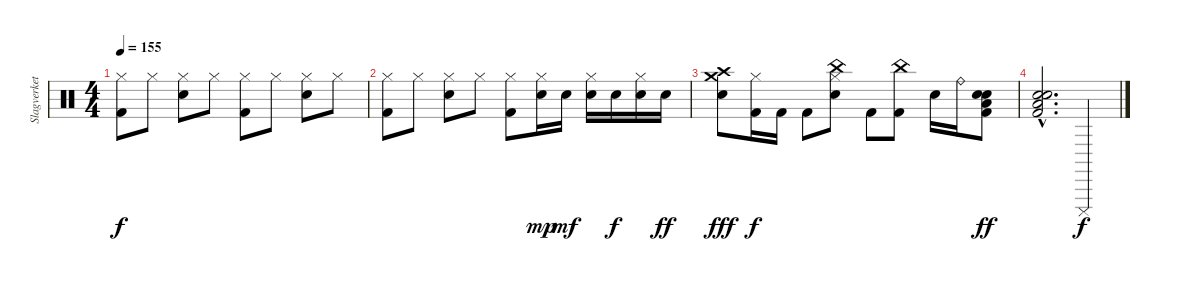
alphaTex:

\track ("Slagverket!" "Slagverket") {instrument percussion}
\staff {score}
\articulation defaults
\ts (4 4)
\tempo 155
\clef neutral
\ks c
("Hi-Hat (closed)" "Kick (hit) 2").8{dy f} "Hi-Hat (closed)".8 ("Hi-Hat (closed)" "Electric Snare (hit)").8 "Hi-Hat (closed)".8 ("Hi-Hat (closed)" "Kick (hit) 2").8 "Hi-Hat (closed)".8 ("Hi-Hat (closed)" "Electric Snare (hit)").8 "Hi-Hat (closed)".8 |
("Hi-Hat (closed)" "Kick (hit) 2").8 "Hi-Hat (closed)".8 ("Hi-Hat (closed)" "Electric Snare (hit)").8 "Hi-Hat (closed)".8 ("Hi-Hat (closed)" "Kick (hit) 2").8 ("Hi-Hat (closed)" "Electric Snare (hit)").16{dy mp} "Electric Snare (hit)".16{dy mf} ("Hi-Hat (closed)" "Electric Snare (hit)").16 "Electric Snare (hit)".16{dy f} ("Hi-Hat (closed)" "Electric Snare (hit)").16 "Electric Snare (hit)".16{dy ff} |
("Crash medium (hit)" "Crash high (hit)" "Electric Snare (hit)").8{dy fff} ("Hi-Hat (closed)" "Kick (hit) 2").16{dy f} "Kick (hit) 2".16 "Kick (hit) 2".8 ("China (hit)" "Hi-Hat (closed)" "Electric Snare (hit)").8 "Kick (hit) 2".8 ("China (hit)" "Kick (hit) 2").8 "Electric Snare (hit)".16 "Ride (bell)".16 ("Snare (hit) 2" "Low Floor Tom (hit)" "Electric Snare (hit)" "Kick (hit) 2").8{dy ff} |
("Snare (hit) 2"{hac} "Low Floor Tom (hit)"{hac} "Electric Snare (hit)"{hac} "Kick (hit) 2"{hac}).2{d} "Cuica (mute)".4{dy f}
